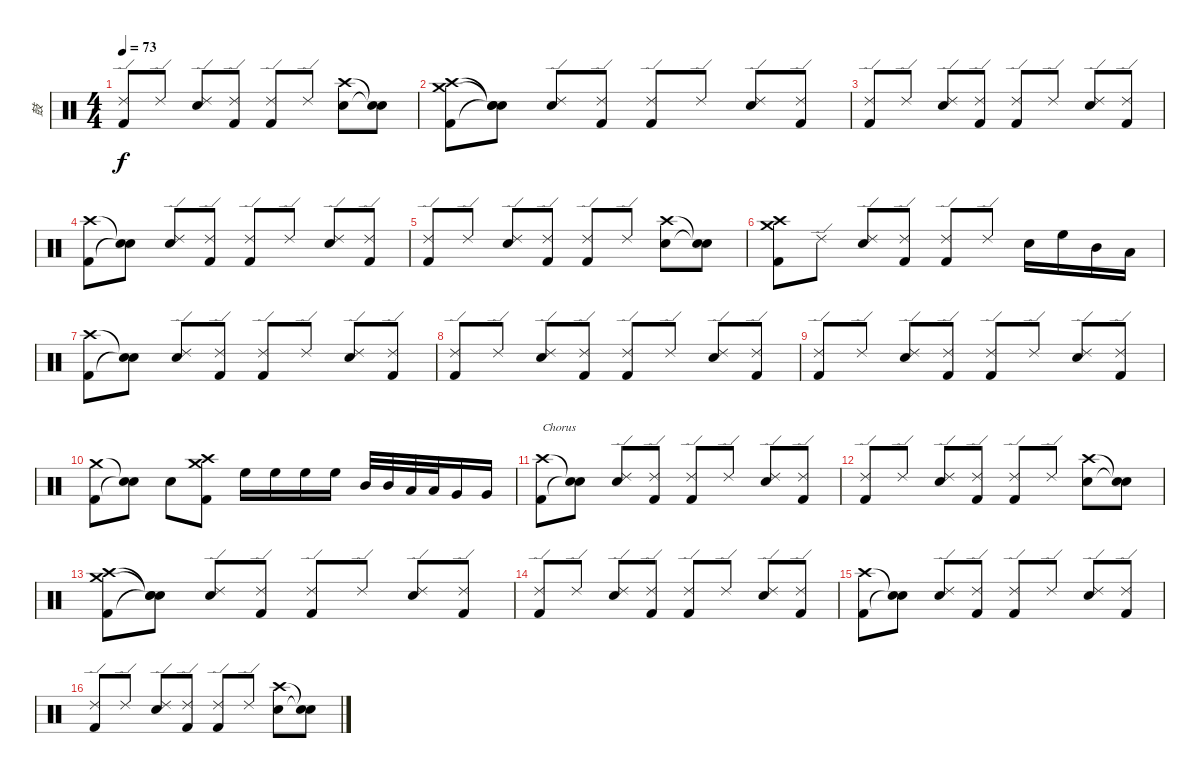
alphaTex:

\track ("鼓" "鼓") {instrument percussion}
\staff {score}
\articulation defaults
\ts (4 4)
\tempo 73
\clef neutral
\ks c
("Ride (edge) 2" "Kick (hit) 2").8{dy f} "Ride (edge) 2".8 ("Ride (edge) 2" "Electric Snare (hit)").8 ("Ride (edge) 2" "Kick (hit) 2").8 ("Ride (edge) 2" "Kick (hit) 2").8 "Ride (edge) 2".8 ("Crash high (hit)" "Electric Snare (hit)").8 ("Snare (hit)"{t} "Snare (hit)"{t}).8 |
("Crash high (hit)" "Crash medium (hit)" "Kick (hit) 2").8 ("Snare (hit)"{t} "Snare (hit)"{t} "Snare (hit)"{t}).8 ("Ride (edge) 2" "Electric Snare (hit)").8 ("Ride (edge) 2" "Kick (hit) 2").8 ("Ride (edge) 2" "Kick (hit) 2").8 "Ride (edge) 2".8 ("Ride (edge) 2" "Electric Snare (hit)").8 ("Ride (edge) 2" "Kick (hit) 2").8 |
("Ride (edge) 2" "Kick (hit) 2").8 "Ride (edge) 2".8 ("Ride (edge) 2" "Electric Snare (hit)").8 ("Ride (edge) 2" "Kick (hit) 2").8 ("Ride (edge) 2" "Kick (hit) 2").8 "Ride (edge) 2".8 ("Ride (edge) 2" "Electric Snare (hit)").8 ("Ride (edge) 2" "Kick (hit) 2").8 |
("Crash high (hit)" "Kick (hit) 2").8 ("Snare (hit)"{t} "Snare (hit)"{t}).8 ("Ride (edge) 2" "Electric Snare (hit)").8 ("Ride (edge) 2" "Kick (hit) 2").8 ("Ride (edge) 2" "Kick (hit) 2").8 "Ride (edge) 2".8 ("Ride (edge) 2" "Electric Snare (hit)").8 ("Ride (edge) 2" "Kick (hit) 2").8 |
("Ride (edge) 2" "Kick (hit) 2").8 "Ride (edge) 2".8 ("Ride (edge) 2" "Electric Snare (hit)").8 ("Ride (edge) 2" "Kick (hit) 2").8 ("Ride (edge) 2" "Kick (hit) 2").8 "Ride (edge) 2".8 ("Crash high (hit)" "Electric Snare (hit)").8 ("Snare (hit)"{t} "Snare (hit)"{t}).8 |
("Crash high (hit)" "Crash medium (hit)" "Kick (hit) 2").8 "Ride (edge) 2".8 ("Ride (edge) 2" "Electric Snare (hit)").8 ("Ride (edge) 2" "Kick (hit) 2").8 ("Ride (edge) 2" "Kick (hit) 2").8 "Ride (edge) 2".8 "Electric Snare (hit)".16 "High Floor Tom (hit)".16 "Mid Tom (hit)".16 "Low Tom (hit)".16 |
("Crash high (hit)" "Kick (hit) 2").8 ("Snare (hit)"{t} "Snare (hit)"{t}).8 ("Ride (edge) 2" "Electric Snare (hit)").8 ("Ride (edge) 2" "Kick (hit) 2").8 ("Ride (edge) 2" "Kick (hit) 2").8 "Ride (edge) 2".8 ("Ride (edge) 2" "Electric Snare (hit)").8 ("Ride (edge) 2" "Kick (hit) 2").8 |
("Ride (edge) 2" "Kick (hit) 2").8 "Ride (edge) 2".8 ("Ride (edge) 2" "Electric Snare (hit)").8 ("Ride (edge) 2" "Kick (hit) 2").8 ("Ride (edge) 2" "Kick (hit) 2").8 "Ride (edge) 2".8 ("Ride (edge) 2" "Electric Snare (hit)").8 ("Ride (edge) 2" "Kick (hit) 2").8 |
("Ride (edge) 2" "Kick (hit) 2").8 "Ride (edge) 2".8 ("Ride (edge) 2" "Electric Snare (hit)").8 ("Ride (edge) 2" "Kick (hit) 2").8 ("Ride (edge) 2" "Kick (hit) 2").8 "Ride (edge) 2".8 ("Ride (edge) 2" "Electric Snare (hit)").8 ("Ride (edge) 2" "Kick (hit) 2").8 |
("Crash medium (hit)" "Kick (hit) 2").8 ("Snare (hit)"{t} "Snare (hit)"{t}).8 "Electric Snare (hit)".8 ("Crash high (hit)" "Crash medium (hit)" "Kick (hit) 2").8 "High Floor Tom (hit)".16 "High Floor Tom (hit)".16 "High Floor Tom (hit)".16 "High Floor Tom (hit)".16 "Mid Tom (hit)".32 "Mid Tom (hit)".32 "Low Tom (hit)".32 "Low Tom (hit)".32 "Very Low Tom (hit)".16 "Very Low Tom (hit)".16 |
("Crash high (hit)" "Kick (hit) 2").8{txt "Chorus"} ("Snare (hit)"{t} "Snare (hit)"{t}).8 ("Ride (edge) 2" "Electric Snare (hit)").8 ("Ride (edge) 2" "Kick (hit) 2").8 ("Ride (edge) 2" "Kick (hit) 2").8 "Ride (edge) 2".8 ("Ride (edge) 2" "Electric Snare (hit)").8 ("Ride (edge) 2" "Kick (hit) 2").8 |
("Ride (edge) 2" "Kick (hit) 2").8 "Ride (edge) 2".8 ("Ride (edge) 2" "Electric Snare (hit)").8 ("Ride (edge) 2" "Kick (hit) 2").8 ("Ride (edge) 2" "Kick (hit) 2").8 "Ride (edge) 2".8 ("Crash high (hit)" "Electric Snare (hit)").8 ("Snare (hit)"{t} "Snare (hit)"{t}).8 |
("Crash high (hit)" "Crash medium (hit)" "Kick (hit) 2").8 ("Snare (hit)"{t} "Snare (hit)"{t} "Snare (hit)"{t}).8 ("Ride (edge) 2" "Electric Snare (hit)").8 ("Ride (edge) 2" "Kick (hit) 2").8 ("Ride (edge) 2" "Kick (hit) 2").8 "Ride (edge) 2".8 ("Ride (edge) 2" "Electric Snare (hit)").8 ("Ride (edge) 2" "Kick (hit) 2").8 |
("Ride (edge) 2" "Kick (hit) 2").8 "Ride (edge) 2".8 ("Ride (edge) 2" "Electric Snare (hit)").8 ("Ride (edge) 2" "Kick (hit) 2").8 ("Ride (edge) 2" "Kick (hit) 2").8 "Ride (edge) 2".8 ("Ride (edge) 2" "Electric Snare (hit)").8 ("Ride (edge) 2" "Kick (hit) 2").8 |
("Crash high (hit)" "Kick (hit) 2").8 ("Snare (hit)"{t} "Snare (hit)"{t}).8 ("Ride (edge) 2" "Electric Snare (hit)").8 ("Ride (edge) 2" "Kick (hit) 2").8 ("Ride (edge) 2" "Kick (hit) 2").8 "Ride (edge) 2".8 ("Ride (edge) 2" "Electric Snare (hit)").8 ("Ride (edge) 2" "Kick (hit) 2").8 |
("Ride (edge) 2" "Kick (hit) 2").8 "Ride (edge) 2".8 ("Ride (edge) 2" "Electric Snare (hit)").8 ("Ride (edge) 2" "Kick (hit) 2").8 ("Ride (edge) 2" "Kick (hit) 2").8 "Ride (edge) 2".8 ("Crash high (hit)" "Electric Snare (hit)").8 ("Snare (hit)"{t} "Snare (hit)"{t}).8
